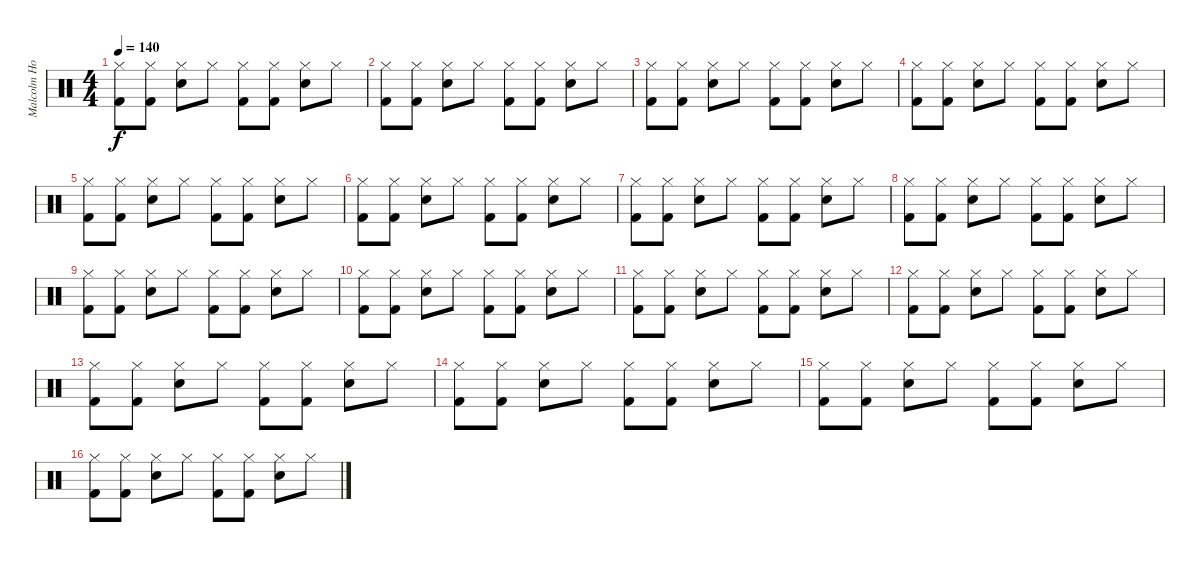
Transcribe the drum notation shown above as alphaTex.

\track ("Malcolm Holmes - Drums" "Malcolm Ho") {instrument percussion}
\staff {score}
\articulation defaults
\ts (4 4)
\tempo 140
\clef neutral
\ks c
("Kick (hit) 2" "Hi-Hat (closed)").8{dy f} ("Kick (hit) 2" "Hi-Hat (closed)").8 ("Snare (hit) 2" "Hi-Hat (closed)").8 "Hi-Hat (closed)".8 ("Kick (hit) 2" "Hi-Hat (closed)").8 ("Kick (hit) 2" "Hi-Hat (closed)").8 ("Snare (hit) 2" "Hi-Hat (closed)").8 "Hi-Hat (closed)".8 |
("Kick (hit) 2" "Hi-Hat (closed)").8 ("Kick (hit) 2" "Hi-Hat (closed)").8 ("Snare (hit) 2" "Hi-Hat (closed)").8 "Hi-Hat (closed)".8 ("Kick (hit) 2" "Hi-Hat (closed)").8 ("Kick (hit) 2" "Hi-Hat (closed)").8 ("Snare (hit) 2" "Hi-Hat (closed)").8 "Hi-Hat (closed)".8 |
("Kick (hit) 2" "Hi-Hat (closed)").8 ("Kick (hit) 2" "Hi-Hat (closed)").8 ("Snare (hit) 2" "Hi-Hat (closed)").8 "Hi-Hat (closed)".8 ("Kick (hit) 2" "Hi-Hat (closed)").8 ("Kick (hit) 2" "Hi-Hat (closed)").8 ("Snare (hit) 2" "Hi-Hat (closed)").8 "Hi-Hat (closed)".8 |
("Kick (hit) 2" "Hi-Hat (closed)").8 ("Kick (hit) 2" "Hi-Hat (closed)").8 ("Snare (hit) 2" "Hi-Hat (closed)").8 "Hi-Hat (closed)".8 ("Kick (hit) 2" "Hi-Hat (closed)").8 ("Kick (hit) 2" "Hi-Hat (closed)").8 ("Snare (hit) 2" "Hi-Hat (closed)").8 "Hi-Hat (closed)".8 |
("Kick (hit) 2" "Hi-Hat (closed)").8 ("Kick (hit) 2" "Hi-Hat (closed)").8 ("Snare (hit) 2" "Hi-Hat (closed)").8 "Hi-Hat (closed)".8 ("Kick (hit) 2" "Hi-Hat (closed)").8 ("Kick (hit) 2" "Hi-Hat (closed)").8 ("Snare (hit) 2" "Hi-Hat (closed)").8 "Hi-Hat (closed)".8 |
("Kick (hit) 2" "Hi-Hat (closed)").8 ("Kick (hit) 2" "Hi-Hat (closed)").8 ("Snare (hit) 2" "Hi-Hat (closed)").8 "Hi-Hat (closed)".8 ("Kick (hit) 2" "Hi-Hat (closed)").8 ("Kick (hit) 2" "Hi-Hat (closed)").8 ("Snare (hit) 2" "Hi-Hat (closed)").8 "Hi-Hat (closed)".8 |
("Kick (hit) 2" "Hi-Hat (closed)").8 ("Kick (hit) 2" "Hi-Hat (closed)").8 ("Snare (hit) 2" "Hi-Hat (closed)").8 "Hi-Hat (closed)".8 ("Kick (hit) 2" "Hi-Hat (closed)").8 ("Kick (hit) 2" "Hi-Hat (closed)").8 ("Snare (hit) 2" "Hi-Hat (closed)").8 "Hi-Hat (closed)".8 |
("Kick (hit) 2" "Hi-Hat (closed)").8 ("Kick (hit) 2" "Hi-Hat (closed)").8 ("Snare (hit) 2" "Hi-Hat (closed)").8 "Hi-Hat (closed)".8 ("Kick (hit) 2" "Hi-Hat (closed)").8 ("Kick (hit) 2" "Hi-Hat (closed)").8 ("Snare (hit) 2" "Hi-Hat (closed)").8 "Hi-Hat (closed)".8 |
("Kick (hit) 2" "Hi-Hat (closed)").8 ("Kick (hit) 2" "Hi-Hat (closed)").8 ("Snare (hit) 2" "Hi-Hat (closed)").8 "Hi-Hat (closed)".8 ("Kick (hit) 2" "Hi-Hat (closed)").8 ("Kick (hit) 2" "Hi-Hat (closed)").8 ("Snare (hit) 2" "Hi-Hat (closed)").8 "Hi-Hat (closed)".8 |
("Kick (hit) 2" "Hi-Hat (closed)").8 ("Kick (hit) 2" "Hi-Hat (closed)").8 ("Snare (hit) 2" "Hi-Hat (closed)").8 "Hi-Hat (closed)".8 ("Kick (hit) 2" "Hi-Hat (closed)").8 ("Kick (hit) 2" "Hi-Hat (closed)").8 ("Snare (hit) 2" "Hi-Hat (closed)").8 "Hi-Hat (closed)".8 |
("Kick (hit) 2" "Hi-Hat (closed)").8 ("Kick (hit) 2" "Hi-Hat (closed)").8 ("Snare (hit) 2" "Hi-Hat (closed)").8 "Hi-Hat (closed)".8 ("Kick (hit) 2" "Hi-Hat (closed)").8 ("Kick (hit) 2" "Hi-Hat (closed)").8 ("Snare (hit) 2" "Hi-Hat (closed)").8 "Hi-Hat (closed)".8 |
("Kick (hit) 2" "Hi-Hat (closed)").8 ("Kick (hit) 2" "Hi-Hat (closed)").8 ("Snare (hit) 2" "Hi-Hat (closed)").8 "Hi-Hat (closed)".8 ("Kick (hit) 2" "Hi-Hat (closed)").8 ("Kick (hit) 2" "Hi-Hat (closed)").8 ("Snare (hit) 2" "Hi-Hat (closed)").8 "Hi-Hat (closed)".8 |
("Kick (hit) 2" "Hi-Hat (closed)").8 ("Kick (hit) 2" "Hi-Hat (closed)").8 ("Snare (hit) 2" "Hi-Hat (closed)").8 "Hi-Hat (closed)".8 ("Kick (hit) 2" "Hi-Hat (closed)").8 ("Kick (hit) 2" "Hi-Hat (closed)").8 ("Snare (hit) 2" "Hi-Hat (closed)").8 "Hi-Hat (closed)".8 |
("Kick (hit) 2" "Hi-Hat (closed)").8 ("Kick (hit) 2" "Hi-Hat (closed)").8 ("Snare (hit) 2" "Hi-Hat (closed)").8 "Hi-Hat (closed)".8 ("Kick (hit) 2" "Hi-Hat (closed)").8 ("Kick (hit) 2" "Hi-Hat (closed)").8 ("Snare (hit) 2" "Hi-Hat (closed)").8 "Hi-Hat (closed)".8 |
("Kick (hit) 2" "Hi-Hat (closed)").8 ("Kick (hit) 2" "Hi-Hat (closed)").8 ("Snare (hit) 2" "Hi-Hat (closed)").8 "Hi-Hat (closed)".8 ("Kick (hit) 2" "Hi-Hat (closed)").8 ("Kick (hit) 2" "Hi-Hat (closed)").8 ("Snare (hit) 2" "Hi-Hat (closed)").8 "Hi-Hat (closed)".8 |
("Kick (hit) 2" "Hi-Hat (closed)").8 ("Kick (hit) 2" "Hi-Hat (closed)").8 ("Snare (hit) 2" "Hi-Hat (closed)").8 "Hi-Hat (closed)".8 ("Kick (hit) 2" "Hi-Hat (closed)").8 ("Kick (hit) 2" "Hi-Hat (closed)").8 ("Snare (hit) 2" "Hi-Hat (closed)").8 "Hi-Hat (closed)".8
